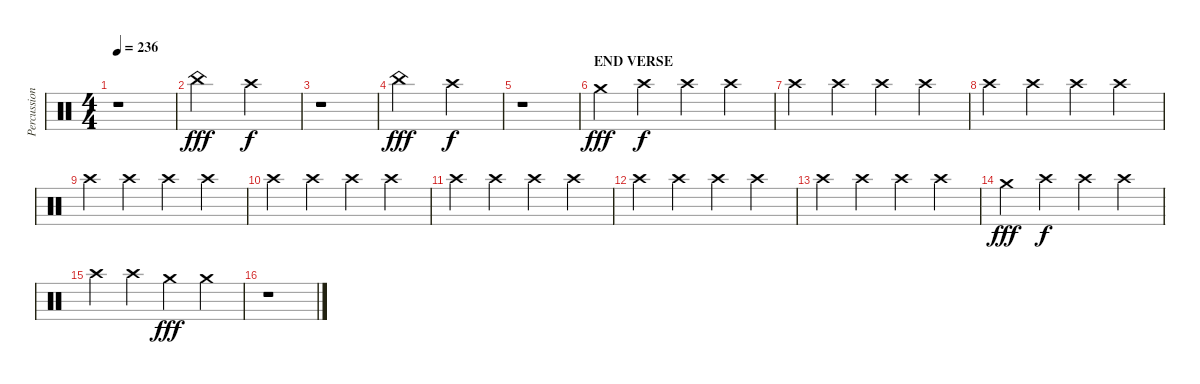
\track ("Percussions" "Percussion") {instrument percussion}
\staff {score}
\articulation defaults
\ts (4 4)
\tempo 236
\clef neutral
\ks c
r.1{dy f} |
"China (hit)".2{dy fff} "Crash high (hit)".2{dy f} |
r.1 |
"China (hit)".2{dy fff} "Crash high (hit)".2{dy f} |
r.1 |
\section ("" "END VERSE")
"Crash medium (hit)".4{dy fff} "Crash high (hit)"{x}.4{dy f} "Crash high (hit)".4 "Crash high (hit)"{x}.4 |
"Crash high (hit)".4 "Crash high (hit)"{x}.4 "Crash high (hit)".4 "Crash high (hit)"{x}.4 |
"Crash high (hit)".4 "Crash high (hit)"{x}.4 "Crash high (hit)".4 "Crash high (hit)"{x}.4 |
"Crash high (hit)".4 "Crash high (hit)"{x}.4 "Crash high (hit)".4 "Crash high (hit)"{x}.4 |
"Crash high (hit)".4 "Crash high (hit)"{x}.4 "Crash high (hit)".4 "Crash high (hit)"{x}.4 |
"Crash high (hit)".4 "Crash high (hit)"{x}.4 "Crash high (hit)".4 "Crash high (hit)"{x}.4 |
"Crash high (hit)".4 "Crash high (hit)"{x}.4 "Crash high (hit)".4 "Crash high (hit)"{x}.4 |
"Crash high (hit)".4 "Crash high (hit)"{x}.4 "Crash high (hit)".4 "Crash high (hit)"{x}.4 |
"Crash medium (hit)".4{dy fff} "Crash high (hit)"{x}.4{dy f} "Crash high (hit)".4 "Crash high (hit)"{x}.4 |
"Crash high (hit)".4 "Crash high (hit)".4 "Crash medium (hit)".4{dy fff} "Crash medium (hit)".4 |
r.1
